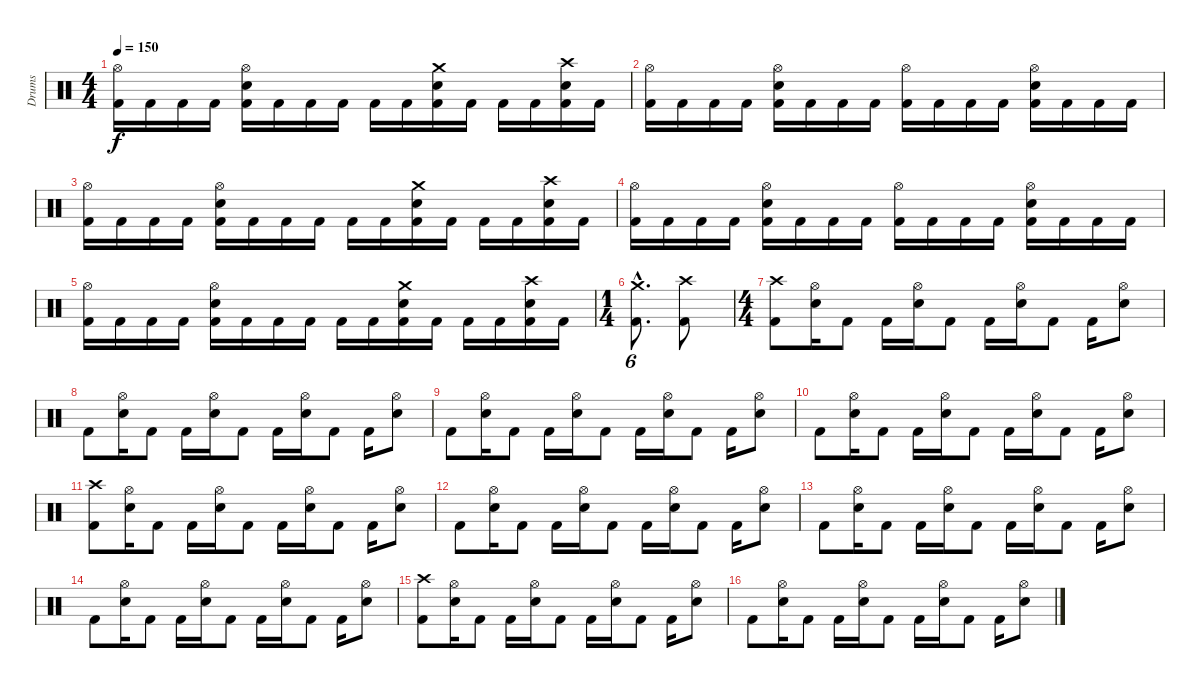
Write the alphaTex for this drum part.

\track ("Drums" "Drums") {instrument percussion}
\staff {score}
\articulation defaults
\ts (4 4)
\tempo 150
\clef neutral
\ks c
("Hi-Hat (open)" "Kick (hit) 2").16{dy f} "Kick (hit) 2".16 "Kick (hit) 2".16 "Kick (hit) 2".16 ("Hi-Hat (open)" "Snare (hit) 2" "Kick (hit) 2").16 "Kick (hit) 2".16 "Kick (hit) 2".16 "Kick (hit) 2".16 "Kick (hit) 2".16 "Kick (hit) 2".16 ("Crash medium (hit)" "Snare (hit) 2" "Kick (hit) 2").16 "Kick (hit) 2".16 "Kick (hit) 2".16 "Kick (hit) 2".16 ("Crash high (hit)" "Snare (hit) 2" "Kick (hit) 2").16 "Kick (hit) 2".16 |
("Hi-Hat (open)" "Kick (hit) 2").16 "Kick (hit) 2".16 "Kick (hit) 2".16 "Kick (hit) 2".16 ("Hi-Hat (open)" "Snare (hit) 2" "Kick (hit) 2").16 "Kick (hit) 2".16 "Kick (hit) 2".16 "Kick (hit) 2".16 ("Hi-Hat (open)" "Kick (hit) 2").16 "Kick (hit) 2".16 "Kick (hit) 2".16 "Kick (hit) 2".16 ("Hi-Hat (open)" "Snare (hit) 2" "Kick (hit) 2").16 "Kick (hit) 2".16 "Kick (hit) 2".16 "Kick (hit) 2".16 |
("Hi-Hat (open)" "Kick (hit) 2").16 "Kick (hit) 2".16 "Kick (hit) 2".16 "Kick (hit) 2".16 ("Hi-Hat (open)" "Snare (hit) 2" "Kick (hit) 2").16 "Kick (hit) 2".16 "Kick (hit) 2".16 "Kick (hit) 2".16 "Kick (hit) 2".16 "Kick (hit) 2".16 ("Crash medium (hit)" "Snare (hit) 2" "Kick (hit) 2").16 "Kick (hit) 2".16 "Kick (hit) 2".16 "Kick (hit) 2".16 ("Crash high (hit)" "Snare (hit) 2" "Kick (hit) 2").16 "Kick (hit) 2".16 |
("Hi-Hat (open)" "Kick (hit) 2").16 "Kick (hit) 2".16 "Kick (hit) 2".16 "Kick (hit) 2".16 ("Hi-Hat (open)" "Snare (hit) 2" "Kick (hit) 2").16 "Kick (hit) 2".16 "Kick (hit) 2".16 "Kick (hit) 2".16 ("Hi-Hat (open)" "Kick (hit) 2").16 "Kick (hit) 2".16 "Kick (hit) 2".16 "Kick (hit) 2".16 ("Hi-Hat (open)" "Snare (hit) 2" "Kick (hit) 2").16 "Kick (hit) 2".16 "Kick (hit) 2".16 "Kick (hit) 2".16 |
("Hi-Hat (open)" "Kick (hit) 2").16 "Kick (hit) 2".16 "Kick (hit) 2".16 "Kick (hit) 2".16 ("Hi-Hat (open)" "Snare (hit) 2" "Kick (hit) 2").16 "Kick (hit) 2".16 "Kick (hit) 2".16 "Kick (hit) 2".16 "Kick (hit) 2".16 "Kick (hit) 2".16 ("Crash medium (hit)" "Snare (hit) 2" "Kick (hit) 2").16 "Kick (hit) 2".16 "Kick (hit) 2".16 "Kick (hit) 2".16 ("Crash high (hit)" "Snare (hit) 2" "Kick (hit) 2").16 "Kick (hit) 2".16 |
\ts (1 4)
("Crash medium (hit)"{hac} "Kick (hit) 2"{hac}).8{d tu (6 4)} ("Crash high (hit)" "Kick (hit) 2").8 |
\ts (4 4)
("Crash high (hit)" "Kick (hit) 2").8 ("Hi-Hat (open)" "Snare (hit) 2").16 "Kick (hit) 2".8 "Kick (hit) 2".16 ("Hi-Hat (open)" "Snare (hit) 2").16 "Kick (hit) 2".8 "Kick (hit) 2".16 ("Hi-Hat (open)" "Snare (hit) 2").16 "Kick (hit) 2".8 "Kick (hit) 2".16 ("Hi-Hat (open)" "Snare (hit) 2").8 |
"Kick (hit) 2".8 ("Hi-Hat (open)" "Snare (hit) 2").16 "Kick (hit) 2".8 "Kick (hit) 2".16 ("Hi-Hat (open)" "Snare (hit) 2").16 "Kick (hit) 2".8 "Kick (hit) 2".16 ("Hi-Hat (open)" "Snare (hit) 2").16 "Kick (hit) 2".8 "Kick (hit) 2".16 ("Hi-Hat (open)" "Snare (hit) 2").8 |
"Kick (hit) 2".8 ("Hi-Hat (open)" "Snare (hit) 2").16 "Kick (hit) 2".8 "Kick (hit) 2".16 ("Hi-Hat (open)" "Snare (hit) 2").16 "Kick (hit) 2".8 "Kick (hit) 2".16 ("Hi-Hat (open)" "Snare (hit) 2").16 "Kick (hit) 2".8 "Kick (hit) 2".16 ("Hi-Hat (open)" "Snare (hit) 2").8 |
"Kick (hit) 2".8 ("Hi-Hat (open)" "Snare (hit) 2").16 "Kick (hit) 2".8 "Kick (hit) 2".16 ("Hi-Hat (open)" "Snare (hit) 2").16 "Kick (hit) 2".8 "Kick (hit) 2".16 ("Hi-Hat (open)" "Snare (hit) 2").16 "Kick (hit) 2".8 "Kick (hit) 2".16 ("Hi-Hat (open)" "Snare (hit) 2").8 |
("Crash high (hit)" "Kick (hit) 2").8 ("Hi-Hat (open)" "Snare (hit) 2").16 "Kick (hit) 2".8 "Kick (hit) 2".16 ("Hi-Hat (open)" "Snare (hit) 2").16 "Kick (hit) 2".8 "Kick (hit) 2".16 ("Hi-Hat (open)" "Snare (hit) 2").16 "Kick (hit) 2".8 "Kick (hit) 2".16 ("Hi-Hat (open)" "Snare (hit) 2").8 |
"Kick (hit) 2".8 ("Hi-Hat (open)" "Snare (hit) 2").16 "Kick (hit) 2".8 "Kick (hit) 2".16 ("Hi-Hat (open)" "Snare (hit) 2").16 "Kick (hit) 2".8 "Kick (hit) 2".16 ("Hi-Hat (open)" "Snare (hit) 2").16 "Kick (hit) 2".8 "Kick (hit) 2".16 ("Hi-Hat (open)" "Snare (hit) 2").8 |
"Kick (hit) 2".8 ("Hi-Hat (open)" "Snare (hit) 2").16 "Kick (hit) 2".8 "Kick (hit) 2".16 ("Hi-Hat (open)" "Snare (hit) 2").16 "Kick (hit) 2".8 "Kick (hit) 2".16 ("Hi-Hat (open)" "Snare (hit) 2").16 "Kick (hit) 2".8 "Kick (hit) 2".16 ("Hi-Hat (open)" "Snare (hit) 2").8 |
"Kick (hit) 2".8 ("Hi-Hat (open)" "Snare (hit) 2").16 "Kick (hit) 2".8 "Kick (hit) 2".16 ("Hi-Hat (open)" "Snare (hit) 2").16 "Kick (hit) 2".8 "Kick (hit) 2".16 ("Hi-Hat (open)" "Snare (hit) 2").16 "Kick (hit) 2".8 "Kick (hit) 2".16 ("Hi-Hat (open)" "Snare (hit) 2").8 |
("Crash high (hit)" "Kick (hit) 2").8 ("Hi-Hat (open)" "Snare (hit) 2").16 "Kick (hit) 2".8 "Kick (hit) 2".16 ("Hi-Hat (open)" "Snare (hit) 2").16 "Kick (hit) 2".8 "Kick (hit) 2".16 ("Hi-Hat (open)" "Snare (hit) 2").16 "Kick (hit) 2".8 "Kick (hit) 2".16 ("Hi-Hat (open)" "Snare (hit) 2").8 |
"Kick (hit) 2".8 ("Hi-Hat (open)" "Snare (hit) 2").16 "Kick (hit) 2".8 "Kick (hit) 2".16 ("Hi-Hat (open)" "Snare (hit) 2").16 "Kick (hit) 2".8 "Kick (hit) 2".16 ("Hi-Hat (open)" "Snare (hit) 2").16 "Kick (hit) 2".8 "Kick (hit) 2".16 ("Hi-Hat (open)" "Snare (hit) 2").8
